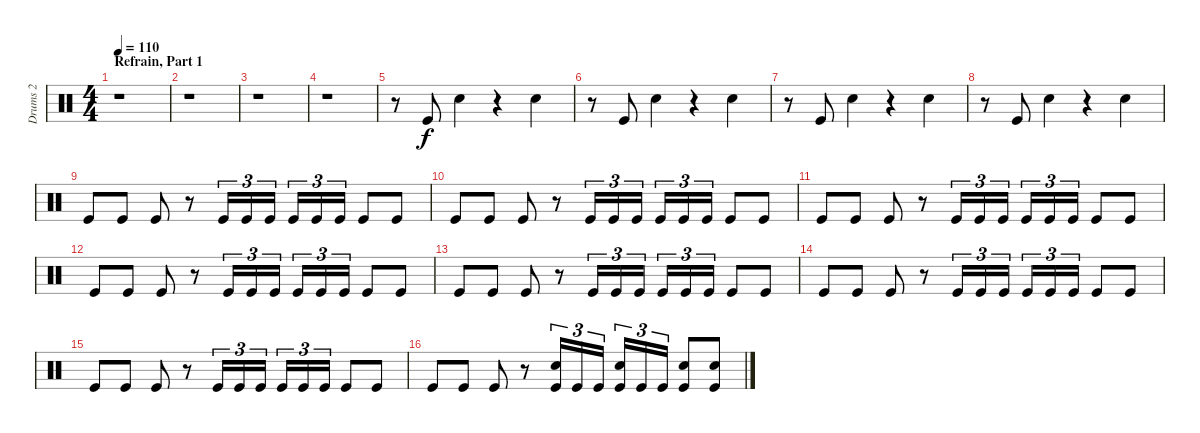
\track ("Drums 2" "Drums 2") {instrument percussion}
\staff {score}
\articulation defaults
\ts (4 4)
\section ("" "Refrain, Part 1")
\tempo 110
\clef neutral
\ks c
r.1{dy f} |
r.1 |
r.1 |
r.1 |
r.8 "Kick (hit)".8 "Snare (hit) 2".4 r.4 "Snare (hit) 2".4 |
r.8 "Kick (hit)".8 "Snare (hit) 2".4 r.4 "Snare (hit) 2".4 |
r.8 "Kick (hit)".8 "Snare (hit) 2".4 r.4 "Snare (hit) 2".4 |
r.8 "Kick (hit)".8 "Snare (hit) 2".4 r.4 "Snare (hit) 2".4 |
"Kick (hit)".8 "Kick (hit)".8 "Kick (hit)".8 r.8 "Kick (hit)".16{tu (3 2)} "Kick (hit)".16{tu (3 2)} "Kick (hit)".16{tu (3 2)} "Kick (hit)".16{tu (3 2)} "Kick (hit)".16{tu (3 2)} "Kick (hit)".16{tu (3 2)} "Kick (hit)".8 "Kick (hit)".8 |
"Kick (hit)".8 "Kick (hit)".8 "Kick (hit)".8 r.8 "Kick (hit)".16{tu (3 2)} "Kick (hit)".16{tu (3 2)} "Kick (hit)".16{tu (3 2)} "Kick (hit)".16{tu (3 2)} "Kick (hit)".16{tu (3 2)} "Kick (hit)".16{tu (3 2)} "Kick (hit)".8 "Kick (hit)".8 |
"Kick (hit)".8 "Kick (hit)".8 "Kick (hit)".8 r.8 "Kick (hit)".16{tu (3 2)} "Kick (hit)".16{tu (3 2)} "Kick (hit)".16{tu (3 2)} "Kick (hit)".16{tu (3 2)} "Kick (hit)".16{tu (3 2)} "Kick (hit)".16{tu (3 2)} "Kick (hit)".8 "Kick (hit)".8 |
"Kick (hit)".8 "Kick (hit)".8 "Kick (hit)".8 r.8 "Kick (hit)".16{tu (3 2)} "Kick (hit)".16{tu (3 2)} "Kick (hit)".16{tu (3 2)} "Kick (hit)".16{tu (3 2)} "Kick (hit)".16{tu (3 2)} "Kick (hit)".16{tu (3 2)} "Kick (hit)".8 "Kick (hit)".8 |
"Kick (hit)".8 "Kick (hit)".8 "Kick (hit)".8 r.8 "Kick (hit)".16{tu (3 2)} "Kick (hit)".16{tu (3 2)} "Kick (hit)".16{tu (3 2)} "Kick (hit)".16{tu (3 2)} "Kick (hit)".16{tu (3 2)} "Kick (hit)".16{tu (3 2)} "Kick (hit)".8 "Kick (hit)".8 |
"Kick (hit)".8 "Kick (hit)".8 "Kick (hit)".8 r.8 "Kick (hit)".16{tu (3 2)} "Kick (hit)".16{tu (3 2)} "Kick (hit)".16{tu (3 2)} "Kick (hit)".16{tu (3 2)} "Kick (hit)".16{tu (3 2)} "Kick (hit)".16{tu (3 2)} "Kick (hit)".8 "Kick (hit)".8 |
"Kick (hit)".8 "Kick (hit)".8 "Kick (hit)".8 r.8 "Kick (hit)".16{tu (3 2)} "Kick (hit)".16{tu (3 2)} "Kick (hit)".16{tu (3 2)} "Kick (hit)".16{tu (3 2)} "Kick (hit)".16{tu (3 2)} "Kick (hit)".16{tu (3 2)} "Kick (hit)".8 "Kick (hit)".8 |
"Kick (hit)".8 "Kick (hit)".8 "Kick (hit)".8 r.8 ("Snare (hit) 2" "Kick (hit)").16{tu (3 2)} "Kick (hit)".16{tu (3 2)} "Kick (hit)".16{tu (3 2)} ("Snare (hit) 2" "Kick (hit)").16{tu (3 2)} "Kick (hit)".16{tu (3 2)} "Kick (hit)".16{tu (3 2)} ("Snare (hit) 2" "Kick (hit)").8 ("Snare (hit) 2" "Kick (hit)").8
